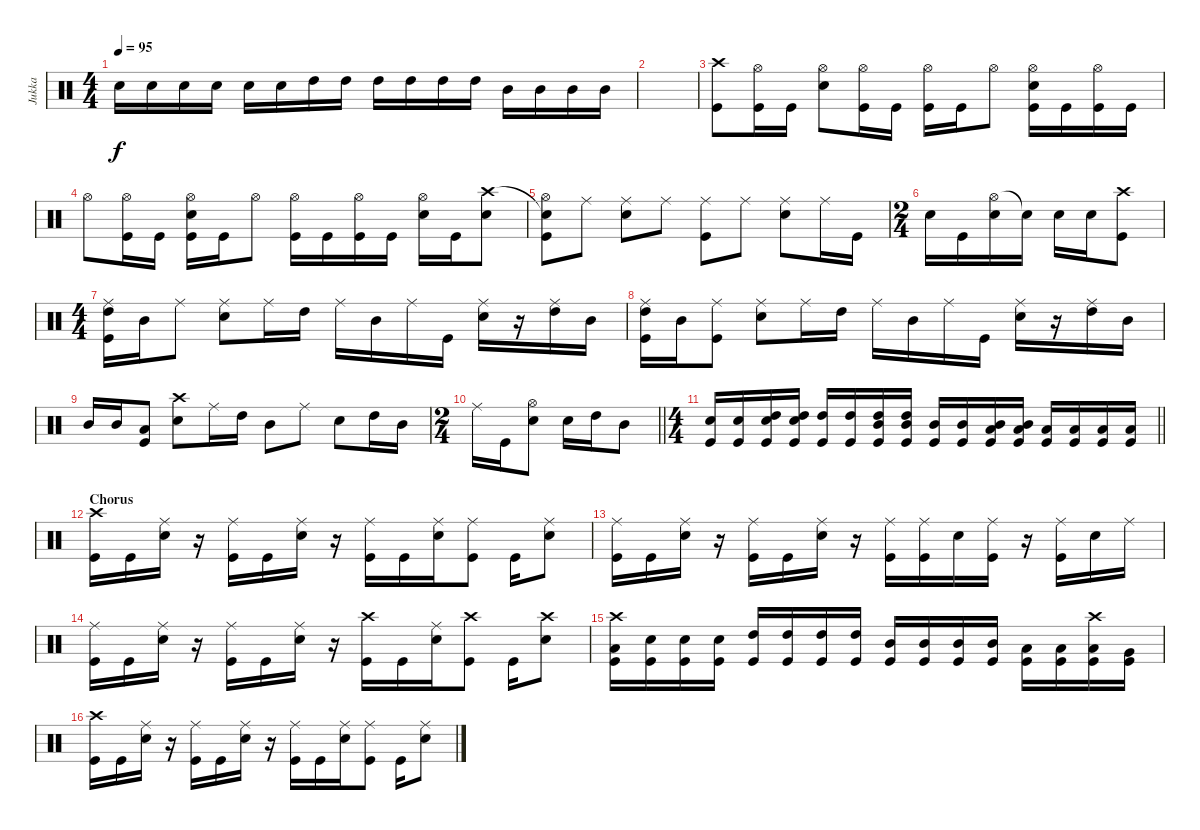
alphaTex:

\track ("Jukka" "Jukka") {instrument percussion}
\staff {score}
\articulation defaults
\ts (4 4)
\tempo 95
\clef neutral
\ks c "Electric Snare (hit)".16{dy f} "Electric Snare (hit)".16 "Electric Snare (hit)".16 "Electric Snare (hit)".16 "Electric Snare (hit)".16 "Electric Snare (hit)".16 "High Tom (hit)".16 "High Tom (hit)".16 "High Tom (hit)".16 "High Tom (hit)".16 "High Tom (hit)".16 "High Tom (hit)".16 "Mid Tom (hit)".16 "Mid Tom (hit)".16 "Mid Tom (hit)".16 "Mid Tom (hit)".16
|
|
("Crash high (hit)" "Kick (hit)").8 ("Hi-Hat (open)" "Kick (hit)").16 "Kick (hit)".16 ("Hi-Hat (open)" "Electric Snare (hit)").8 ("Hi-Hat (open)" "Kick (hit)").16 "Kick (hit)".16 ("Hi-Hat (open)" "Kick (hit)").16 "Kick (hit)".16 "Hi-Hat (open)".8 ("Hi-Hat (open)" "Electric Snare (hit)" "Kick (hit)").16 "Kick (hit)".16 ("Hi-Hat (open)" "Kick (hit)").16 "Kick (hit)".16 |
"Hi-Hat (open)".8 ("Hi-Hat (open)" "Kick (hit)").16 "Kick (hit)".16 ("Hi-Hat (open)" "Electric Snare (hit)" "Kick (hit)").16 "Kick (hit)".16 "Hi-Hat (open)".8 ("Hi-Hat (open)" "Kick (hit)").16 "Kick (hit)".16 ("Hi-Hat (open)" "Kick (hit)").16 "Kick (hit)".16 ("Hi-Hat (open)" "Electric Snare (hit)").16 "Kick (hit)".16 ("Crash high (hit)" "Electric Snare (hit)").8 |
("Snare (hit)"{t} "Hi-Hat (open)" "Kick (hit)").8 "Ride (middle)".8 ("Ride (middle)" "Electric Snare (hit)").8 "Ride (middle)".8 ("Ride (middle)" "Kick (hit)").8 "Ride (middle)".8 ("Ride (middle)" "Electric Snare (hit)").8 "Ride (middle)".16 "Kick (hit)".16 |
\ts (2 4)
"Electric Snare (hit)".16 "Kick (hit)".16 ("Hi-Hat (open)" "Electric Snare (hit)").16 "Snare (hit)"{t}.16 "Electric Snare (hit)".16 "Electric Snare (hit)".16 ("Crash high (hit)" "Kick (hit)").8 |
\ts (4 4)
("Ride (middle)" "High Tom (hit)" "Kick (hit)").16 "Mid Tom (hit)".16 "Ride (middle)".8 ("Ride (middle)" "Electric Snare (hit)").8 "Ride (middle)".16 "High Tom (hit)".16 "Ride (middle)".16 "Mid Tom (hit)".16 "Ride (middle)".16 "Kick (hit)".16 ("Ride (middle)" "Electric Snare (hit)").16 r.16 ("Ride (middle)" "High Tom (hit)").16 "Mid Tom (hit)".16 |
("Ride (middle)" "High Tom (hit)" "Kick (hit)").16 "Mid Tom (hit)".16 ("Ride (middle)" "Kick (hit)").8 ("Ride (middle)" "Electric Snare (hit)").8 "Ride (middle)".16 "High Tom (hit)".16 "Ride (middle)".16 "Mid Tom (hit)".16 "Ride (middle)".16 "Kick (hit)".16 ("Ride (middle)" "Electric Snare (hit)").16 r.16 ("Ride (middle)" "High Tom (hit)").16 "Mid Tom (hit)".16 |
"Mid Tom (hit)".16 "Mid Tom (hit)".16 ("Low Tom (hit)" "Kick (hit)").8 ("Crash high (hit)" "Electric Snare (hit)").8 "Ride (middle)".16 "High Tom (hit)".16 "Mid Tom (hit)".8 "Ride (middle)".8 "Electric Snare (hit)".8 "High Tom (hit)".16 "Mid Tom (hit)".16 |
\ts (2 4)
\barLineRight lightlight "Ride (middle)".16 "Kick (hit)".16
("Hi-Hat (open)" "Electric Snare (hit)").8 "Electric Snare (hit)".16 "High Tom (hit)".16 "Mid Tom (hit)".8 |
\ts (4 4)
\barLineRight lightlight
("Electric Snare (hit)" "Kick (hit)").16 ("Electric Snare (hit)" "Kick (hit)").16 ("High Tom (hit)" "Electric Snare (hit)" "Kick (hit)").16 ("High Tom (hit)" "Electric Snare (hit)" "Kick (hit)").16 ("High Tom (hit)" "Kick (hit)").16 ("High Tom (hit)" "Kick (hit)").16 ("High Tom (hit)" "Mid Tom (hit)" "Kick (hit)").16 ("High Tom (hit)" "Mid Tom (hit)" "Kick (hit)").16 ("Mid Tom (hit)" "Kick (hit)").16 ("Mid Tom (hit)" "Kick (hit)").16 ("Mid Tom (hit)" "Low Tom (hit)" "Kick (hit)").16 ("Mid Tom (hit)" "Low Tom (hit)" "Kick (hit)").16 ("Low Tom (hit)" "Kick (hit)").16 ("Low Tom (hit)" "Kick (hit)").16 ("Low Tom (hit)" "Kick (hit)").16 ("Low Tom (hit)" "Kick (hit)").16 |
\section ("" "Chorus")
("Crash high (hit)" "Kick (hit)").16 "Kick (hit)".16 ("Ride (middle)" "Electric Snare (hit)").16 r.16 ("Ride (middle)" "Kick (hit)").16 "Kick (hit)".16 ("Ride (middle)" "Electric Snare (hit)").16 r.16 ("Ride (middle)" "Kick (hit)").16 "Kick (hit)".16 ("Ride (middle)" "Electric Snare (hit)").16 ("Ride (middle)" "Kick (hit)").8 "Kick (hit)".16 ("Ride (middle)" "Electric Snare (hit)").8 |
("Ride (middle)" "Kick (hit)").16 "Kick (hit)".16 ("Ride (middle)" "Electric Snare (hit)").16 r.16 ("Ride (middle)" "Kick (hit)").16 "Kick (hit)".16 ("Ride (middle)" "Electric Snare (hit)").16 r.16 ("Ride (middle)" "Kick (hit)").16 ("Ride (middle)" "Kick (hit)").16 "Electric Snare (hit)".16 ("Ride (middle)" "Kick (hit)").16 r.16 ("Ride (middle)" "Kick (hit)").16 "Electric Snare (hit)".16 "Ride (middle)".16 |
("Ride (middle)" "Kick (hit)").16 "Kick (hit)".16 ("Ride (middle)" "Electric Snare (hit)").16 r.16 ("Ride (middle)" "Kick (hit)").16 "Kick (hit)".16 ("Ride (middle)" "Electric Snare (hit)").16 r.16 ("Crash high (hit)" "Kick (hit)").16 "Kick (hit)".16 ("Ride (middle)" "Electric Snare (hit)").16 ("Crash high (hit)" "Kick (hit)").8 "Kick (hit)".16 ("Crash high (hit)" "Electric Snare (hit)").8 |
("Crash high (hit)" "Low Tom (hit)" "Kick (hit)").16 ("Electric Snare (hit)" "Kick (hit)").16 ("Electric Snare (hit)" "Kick (hit)").16 ("Electric Snare (hit)" "Kick (hit)").16 ("High Tom (hit)" "Kick (hit)").16 ("High Tom (hit)" "Kick (hit)").16 ("High Tom (hit)" "Kick (hit)").16 ("High Tom (hit)" "Kick (hit)").16 ("Mid Tom (hit)" "Kick (hit)").16 ("Mid Tom (hit)" "Kick (hit)").16 ("Mid Tom (hit)" "Kick (hit)").16 ("Mid Tom (hit)" "Kick (hit)").16 ("Low Tom (hit)" "Kick (hit)").16 ("Low Tom (hit)" "Kick (hit)").16 ("Crash high (hit)" "Low Tom (hit)" "Kick (hit)").16 ("Very Low Tom (hit)" "Kick (hit)").16 |
("Crash high (hit)" "Kick (hit)").16 "Kick (hit)".16 ("Ride (middle)" "Electric Snare (hit)").16 r.16 ("Ride (middle)" "Kick (hit)").16 "Kick (hit)".16 ("Ride (middle)" "Electric Snare (hit)").16 r.16 ("Ride (middle)" "Kick (hit)").16 "Kick (hit)".16 ("Ride (middle)" "Electric Snare (hit)").16 ("Ride (middle)" "Kick (hit)").8 "Kick (hit)".16 ("Ride (middle)" "Electric Snare (hit)").8
